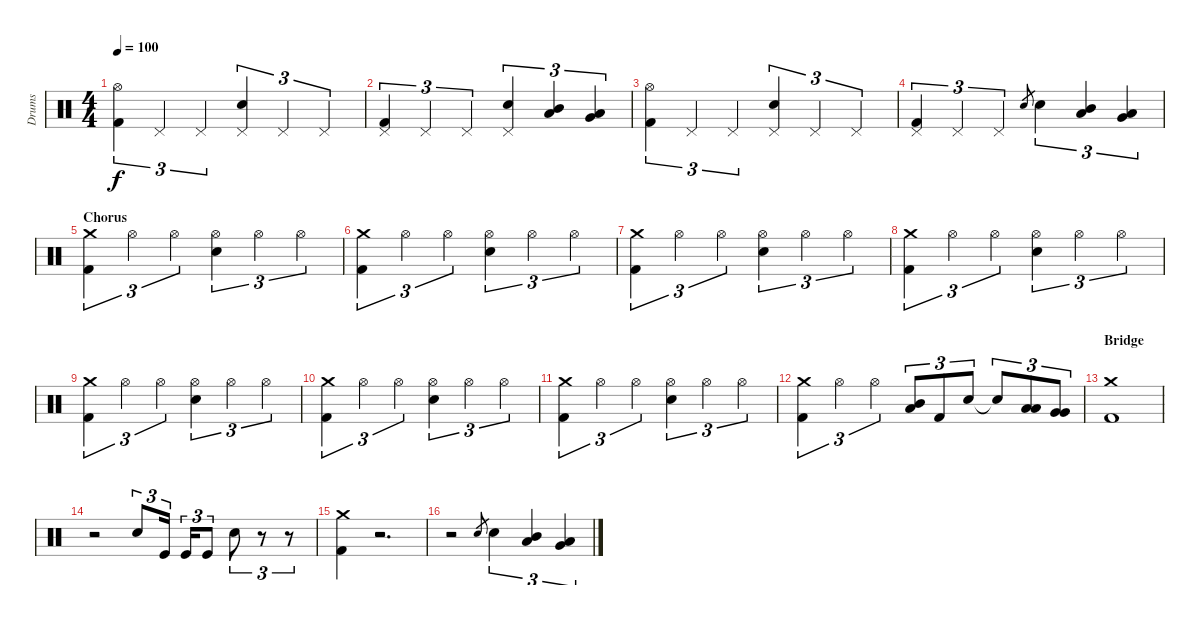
\track ("Drums" "Drums") {instrument percussion}
\staff {score}
\articulation defaults
\ts (4 4)
\tempo 100
\clef neutral
\ks c
("Hi-Hat (open)" "Kick (hit) 2").4{tu (3 2) dy f} "Pedal Hi-Hat (hit)".4{tu (3 2)} "Pedal Hi-Hat (hit)".4{tu (3 2)} ("Pedal Hi-Hat (hit)" "Electric Snare (hit)").4{tu (3 2)} "Pedal Hi-Hat (hit)".4{tu (3 2)} "Pedal Hi-Hat (hit)".4{tu (3 2)} |
("Pedal Hi-Hat (hit)" "Kick (hit) 2").4{tu (3 2)} "Pedal Hi-Hat (hit)".4{tu (3 2)} "Pedal Hi-Hat (hit)".4{tu (3 2)} ("Pedal Hi-Hat (hit)" "Electric Snare (hit)").4{tu (3 2)} ("Low Tom (hit)" "Mid Tom (hit)").4{tu (3 2)} ("Very Low Tom (hit)" "Low Tom (hit)").4{tu (3 2)} |
("Hi-Hat (open)" "Kick (hit) 2").4{tu (3 2)} "Pedal Hi-Hat (hit)".4{tu (3 2)} "Pedal Hi-Hat (hit)".4{tu (3 2)} ("Pedal Hi-Hat (hit)" "Electric Snare (hit)").4{tu (3 2)} "Pedal Hi-Hat (hit)".4{tu (3 2)} "Pedal Hi-Hat (hit)".4{tu (3 2)} |
("Pedal Hi-Hat (hit)" "Kick (hit) 2").4{tu (3 2)} "Pedal Hi-Hat (hit)".4{tu (3 2)} "Pedal Hi-Hat (hit)".4{tu (3 2)} "Electric Snare (hit)".8{gr} "Electric Snare (hit)".4{tu (3 2)} ("Low Tom (hit)" "Mid Tom (hit)").4{tu (3 2)} ("Very Low Tom (hit)" "Low Tom (hit)").4{tu (3 2)} |
\section ("" "Chorus")
("Crash medium (hit)" "Kick (hit) 2").4{tu (3 2)} "Hi-Hat (open)".4{tu (3 2)} "Hi-Hat (open)".4{tu (3 2)} ("Hi-Hat (open)" "Electric Snare (hit)").4{tu (3 2)} "Hi-Hat (open)".4{tu (3 2)} "Hi-Hat (open)".4{tu (3 2)} |
("Crash medium (hit)" "Kick (hit) 2").4{tu (3 2)} "Hi-Hat (open)".4{tu (3 2)} "Hi-Hat (open)".4{tu (3 2)} ("Hi-Hat (open)" "Electric Snare (hit)").4{tu (3 2)} "Hi-Hat (open)".4{tu (3 2)} "Hi-Hat (open)".4{tu (3 2)} |
("Crash medium (hit)" "Kick (hit) 2").4{tu (3 2)} "Hi-Hat (open)".4{tu (3 2)} "Hi-Hat (open)".4{tu (3 2)} ("Hi-Hat (open)" "Electric Snare (hit)").4{tu (3 2)} "Hi-Hat (open)".4{tu (3 2)} "Hi-Hat (open)".4{tu (3 2)} |
("Crash medium (hit)" "Kick (hit) 2").4{tu (3 2)} "Hi-Hat (open)".4{tu (3 2)} "Hi-Hat (open)".4{tu (3 2)} ("Hi-Hat (open)" "Electric Snare (hit)").4{tu (3 2)} "Hi-Hat (open)".4{tu (3 2)} "Hi-Hat (open)".4{tu (3 2)} |
("Crash medium (hit)" "Kick (hit) 2").4{tu (3 2)} "Hi-Hat (open)".4{tu (3 2)} "Hi-Hat (open)".4{tu (3 2)} ("Hi-Hat (open)" "Electric Snare (hit)").4{tu (3 2)} "Hi-Hat (open)".4{tu (3 2)} "Hi-Hat (open)".4{tu (3 2)} |
("Crash medium (hit)" "Kick (hit) 2").4{tu (3 2)} "Hi-Hat (open)".4{tu (3 2)} "Hi-Hat (open)".4{tu (3 2)} ("Hi-Hat (open)" "Electric Snare (hit)").4{tu (3 2)} "Hi-Hat (open)".4{tu (3 2)} "Hi-Hat (open)".4{tu (3 2)} |
("Crash medium (hit)" "Kick (hit) 2").4{tu (3 2)} "Hi-Hat (open)".4{tu (3 2)} "Hi-Hat (open)".4{tu (3 2)} ("Hi-Hat (open)" "Electric Snare (hit)").4{tu (3 2)} "Hi-Hat (open)".4{tu (3 2)} "Hi-Hat (open)".4{tu (3 2)} |
("Crash medium (hit)" "Kick (hit) 2").4{tu (3 2)} "Hi-Hat (open)".4{tu (3 2)} "Hi-Hat (open)".4{tu (3 2)} ("Low Tom (hit)" "Mid Tom (hit)").8{tu (3 2)} "Kick (hit) 2".8{tu (3 2)} "Electric Snare (hit)".8{tu (3 2)} "Electric Snare (hit)"{t}.8{tu (3 2)} ("Low Tom (hit)" "Low Tom (hit)").8{tu (3 2)} ("Very Low Tom (hit)" "Very Low Tom (hit)").8{tu (3 2)} |
\section ("" "Bridge")
("Crash medium (hit)" "Kick (hit) 2").1 |
r.2 "Electric Snare (hit)".8{tu (3 2)} "Kick (hit)".16{tu (3 2)} "Kick (hit)".16{tu (3 2)} "Kick (hit)".8{tu (3 2)} "Electric Snare (hit)".8{tu (3 2)} r.8{tu (3 2)} r.8{tu (3 2)} |
("Crash medium (hit)" "Kick (hit) 2").4 r.2{d} |
r.2 "Electric Snare (hit)".8{gr} "Electric Snare (hit)".4{tu (3 2)} ("Mid Tom (hit)" "Low Tom (hit)").4{tu (3 2)} ("Very Low Tom (hit)" "Low Tom (hit)").4{tu (3 2)}
